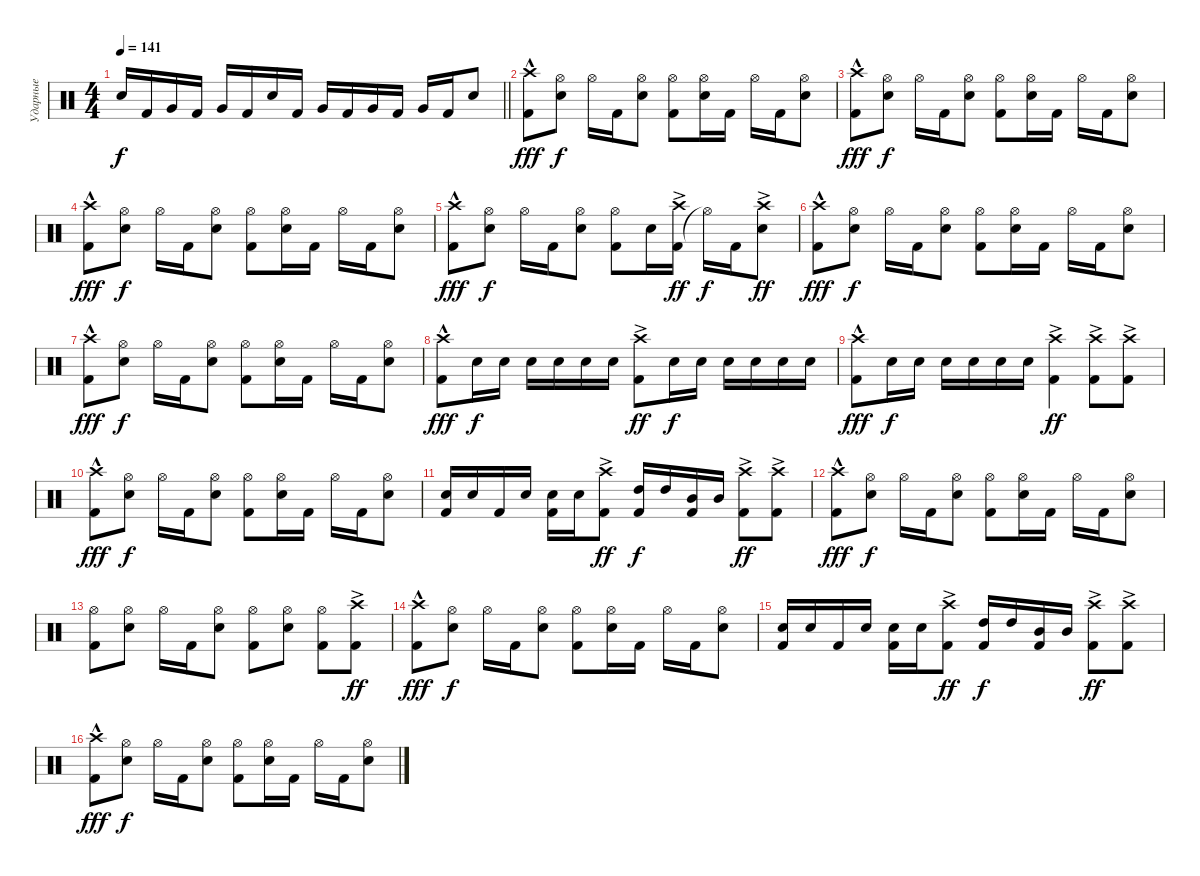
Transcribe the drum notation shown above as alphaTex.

\track ("Ударные" "Ударные") {instrument percussion}
\staff
\articulation defaults
\ts (4 4)
\tempo 141
\clef neutral
\barLineRight lightlight
\ks c "Snare (hit) 2".16{dy f} "Kick (hit) 2".16 "Very Low Tom (hit)".16 "Kick (hit) 2".16 "Very Low Tom (hit)".16 "Kick (hit) 2".16 "Snare (hit) 2".16 "Kick (hit) 2".16 "Very Low Tom (hit)".16 "Kick (hit) 2".16 "Very Low Tom (hit)".16 "Kick (hit) 2".16 "Very Low Tom (hit)".16 "Kick (hit) 2".16 "Snare (hit) 2".8
|
("Kick (hit) 2" "Crash high (hit)"{hac}).8{dy fff} ("Snare (hit) 2" "Hi-Hat (open)").8{dy f} "Hi-Hat (open)".16 "Kick (hit) 2".16 ("Snare (hit) 2" "Hi-Hat (open)").8 ("Kick (hit) 2" "Hi-Hat (open)").8 ("Snare (hit) 2" "Hi-Hat (open)").16 "Kick (hit) 2".16 "Hi-Hat (open)".16 "Kick (hit) 2".16 ("Snare (hit) 2" "Hi-Hat (open)").8 |
("Kick (hit) 2" "Crash high (hit)"{hac}).8{dy fff} ("Snare (hit) 2" "Hi-Hat (open)").8{dy f} "Hi-Hat (open)".16 "Kick (hit) 2".16 ("Snare (hit) 2" "Hi-Hat (open)").8 ("Kick (hit) 2" "Hi-Hat (open)").8 ("Snare (hit) 2" "Hi-Hat (open)").16 "Kick (hit) 2".16 "Hi-Hat (open)".16 "Kick (hit) 2".16 ("Snare (hit) 2" "Hi-Hat (open)").8 |
("Kick (hit) 2" "Crash high (hit)"{hac}).8{dy fff} ("Snare (hit) 2" "Hi-Hat (open)").8{dy f} "Hi-Hat (open)".16 "Kick (hit) 2".16 ("Snare (hit) 2" "Hi-Hat (open)").8 ("Kick (hit) 2" "Hi-Hat (open)").8 ("Snare (hit) 2" "Hi-Hat (open)").16 "Kick (hit) 2".16 "Hi-Hat (open)".16 "Kick (hit) 2".16 ("Snare (hit) 2" "Hi-Hat (open)").8 |
("Kick (hit) 2" "Crash high (hit)"{hac}).8{dy fff} ("Snare (hit) 2" "Hi-Hat (open)").8{dy f} "Hi-Hat (open)".16 "Kick (hit) 2".16 ("Snare (hit) 2" "Hi-Hat (open)").8 ("Kick (hit) 2" "Hi-Hat (open)").8 "Snare (hit) 2".16 ("Kick (hit) 2" "Crash high (hit)"{ac}).16{dy ff} "Hi-Hat (open)"{t}.16{dy f} "Kick (hit) 2".16 ("Snare (hit) 2" "Crash high (hit)"{ac}).8{dy ff} |
("Kick (hit) 2" "Crash high (hit)"{hac}).8{dy fff} ("Snare (hit) 2" "Hi-Hat (open)").8{dy f} "Hi-Hat (open)".16 "Kick (hit) 2".16 ("Snare (hit) 2" "Hi-Hat (open)").8 ("Kick (hit) 2" "Hi-Hat (open)").8 ("Snare (hit) 2" "Hi-Hat (open)").16 "Kick (hit) 2".16 "Hi-Hat (open)".16 "Kick (hit) 2".16 ("Snare (hit) 2" "Hi-Hat (open)").8 |
("Kick (hit) 2" "Crash high (hit)"{hac}).8{dy fff} ("Snare (hit) 2" "Hi-Hat (open)").8{dy f} "Hi-Hat (open)".16 "Kick (hit) 2".16 ("Snare (hit) 2" "Hi-Hat (open)").8 ("Kick (hit) 2" "Hi-Hat (open)").8 ("Snare (hit) 2" "Hi-Hat (open)").16 "Kick (hit) 2".16 "Hi-Hat (open)".16 "Kick (hit) 2".16 ("Snare (hit) 2" "Hi-Hat (open)").8 |
("Kick (hit) 2" "Crash high (hit)"{hac}).8{dy fff} "Snare (hit) 2".16{dy f} "Snare (hit) 2".16 "Snare (hit) 2".16 "Snare (hit) 2".16 "Snare (hit) 2".16 "Snare (hit) 2".16 ("Kick (hit) 2" "Crash high (hit)"{ac}).8{dy ff} "Snare (hit) 2".16{dy f} "Snare (hit) 2".16 "Snare (hit) 2".16 "Snare (hit) 2".16 "Snare (hit) 2".16 "Snare (hit) 2".16 |
("Kick (hit) 2" "Crash high (hit)"{hac}).8{dy fff} "Snare (hit) 2".16{dy f} "Snare (hit) 2".16 "Snare (hit) 2".16 "Snare (hit) 2".16 "Snare (hit) 2".16 "Snare (hit) 2".16 ("Kick (hit) 2" "Crash high (hit)"{ac}).4{dy ff} ("Kick (hit) 2" "Crash high (hit)"{ac}).8 ("Kick (hit) 2" "Crash high (hit)"{ac}).8 |
("Kick (hit) 2" "Crash high (hit)"{hac}).8{dy fff} ("Snare (hit) 2" "Hi-Hat (open)").8{dy f} "Hi-Hat (open)".16 "Kick (hit) 2".16 ("Snare (hit) 2" "Hi-Hat (open)").8 ("Kick (hit) 2" "Hi-Hat (open)").8 ("Snare (hit) 2" "Hi-Hat (open)").16 "Kick (hit) 2".16 "Hi-Hat (open)".16 "Kick (hit) 2".16 ("Snare (hit) 2" "Hi-Hat (open)").8 |
("Kick (hit) 2" "Snare (hit) 2").16 "Snare (hit) 2".16 "Kick (hit) 2".16 "Snare (hit) 2".16 ("Kick (hit) 2" "Snare (hit) 2").16 "Snare (hit) 2".16 ("Kick (hit) 2" "Crash high (hit)"{ac}).8{dy ff} ("Kick (hit) 2" "High Tom (hit)").16{dy f} "High Tom (hit)".16 ("Kick (hit) 2" "Mid Tom (hit)").16 "Mid Tom (hit)".16 ("Kick (hit) 2" "Crash high (hit)"{ac}).8{dy ff} ("Kick (hit) 2" "Crash high (hit)"{ac}).8 |
("Kick (hit) 2" "Crash high (hit)"{hac}).8{dy fff} ("Snare (hit) 2" "Hi-Hat (open)").8{dy f} "Hi-Hat (open)".16 "Kick (hit) 2".16 ("Snare (hit) 2" "Hi-Hat (open)").8 ("Kick (hit) 2" "Hi-Hat (open)").8 ("Snare (hit) 2" "Hi-Hat (open)").16 "Kick (hit) 2".16 "Hi-Hat (open)".16 "Kick (hit) 2".16 ("Snare (hit) 2" "Hi-Hat (open)").8 |
("Kick (hit) 2" "Hi-Hat (open)").8 ("Snare (hit) 2" "Hi-Hat (open)").8 "Hi-Hat (open)".16 "Kick (hit) 2".16 ("Snare (hit) 2" "Hi-Hat (open)").8 ("Kick (hit) 2" "Hi-Hat (open)").8 ("Snare (hit) 2" "Hi-Hat (open)").8 ("Kick (hit) 2" "Hi-Hat (open)").8 ("Kick (hit) 2" "Crash high (hit)"{ac}).8{dy ff} |
("Kick (hit) 2" "Crash high (hit)"{hac}).8{dy fff} ("Snare (hit) 2" "Hi-Hat (open)").8{dy f} "Hi-Hat (open)".16 "Kick (hit) 2".16 ("Snare (hit) 2" "Hi-Hat (open)").8 ("Kick (hit) 2" "Hi-Hat (open)").8 ("Snare (hit) 2" "Hi-Hat (open)").16 "Kick (hit) 2".16 "Hi-Hat (open)".16 "Kick (hit) 2".16 ("Snare (hit) 2" "Hi-Hat (open)").8 |
("Kick (hit) 2" "Snare (hit) 2").16 "Snare (hit) 2".16 "Kick (hit) 2".16 "Snare (hit) 2".16 ("Kick (hit) 2" "Snare (hit) 2").16 "Snare (hit) 2".16 ("Kick (hit) 2" "Crash high (hit)"{ac}).8{dy ff} ("Kick (hit) 2" "High Tom (hit)").16{dy f} "High Tom (hit)".16 ("Kick (hit) 2" "Mid Tom (hit)").16 "Mid Tom (hit)".16 ("Kick (hit) 2" "Crash high (hit)"{ac}).8{dy ff} ("Kick (hit) 2" "Crash high (hit)"{ac}).8 |
("Kick (hit) 2" "Crash high (hit)"{hac}).8{dy fff} ("Snare (hit) 2" "Hi-Hat (open)").8{dy f} "Hi-Hat (open)".16 "Kick (hit) 2".16 ("Snare (hit) 2" "Hi-Hat (open)").8 ("Kick (hit) 2" "Hi-Hat (open)").8 ("Snare (hit) 2" "Hi-Hat (open)").16 "Kick (hit) 2".16 "Hi-Hat (open)".16 "Kick (hit) 2".16 ("Snare (hit) 2" "Hi-Hat (open)").8
